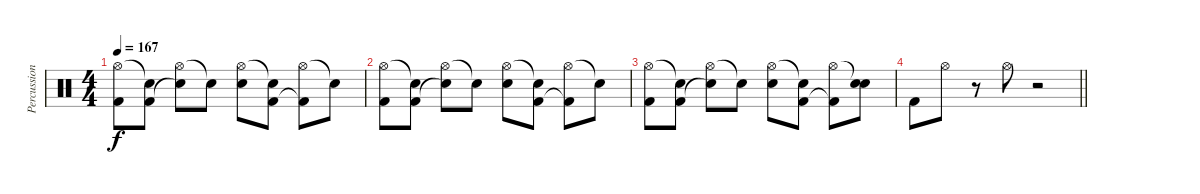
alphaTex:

\track ("Percussion" "Percussion") {instrument percussion}
\staff {score}
\articulation defaults
\ts (4 4)
\tempo 167
\clef neutral
\ks c
("Hi-Hat (open)" "Kick (hit) 2").8{dy f} ("Snare (hit)"{t} "Kick (hit) 2").8 ("Hi-Hat (open)" "Snare (hit)"{t}).8 "Snare (hit)"{t}.8 ("Hi-Hat (open)" "Electric Snare (hit)").8 ("Snare (hit)"{t} "Kick (hit) 2").8 ("Hi-Hat (open)" "Kick (hit) 2"{t}).8 "Snare (hit)"{t}.8 |
("Hi-Hat (open)" "Kick (hit) 2").8 ("Snare (hit)"{t} "Kick (hit) 2").8 ("Hi-Hat (open)" "Snare (hit)"{t}).8 "Snare (hit)"{t}.8 ("Hi-Hat (open)" "Electric Snare (hit)").8 ("Snare (hit)"{t} "Kick (hit) 2").8 ("Hi-Hat (open)" "Kick (hit) 2"{t}).8 "Snare (hit)"{t}.8 |
("Hi-Hat (open)" "Kick (hit) 2").8 ("Snare (hit)"{t} "Kick (hit) 2").8 ("Hi-Hat (open)" "Snare (hit)"{t}).8 "Snare (hit)"{t}.8 ("Hi-Hat (open)" "Electric Snare (hit)").8 ("Snare (hit)"{t} "Kick (hit) 2").8 ("Hi-Hat (open)" "Kick (hit) 2"{t}).8 ("Snare (hit)"{t} "Electric Snare (hit)").8 |
\barLineRight lightlight "Kick (hit) 2".8 "Hi-Hat (open)".8
r.8 "Hi-Hat (open)".8 r.2
